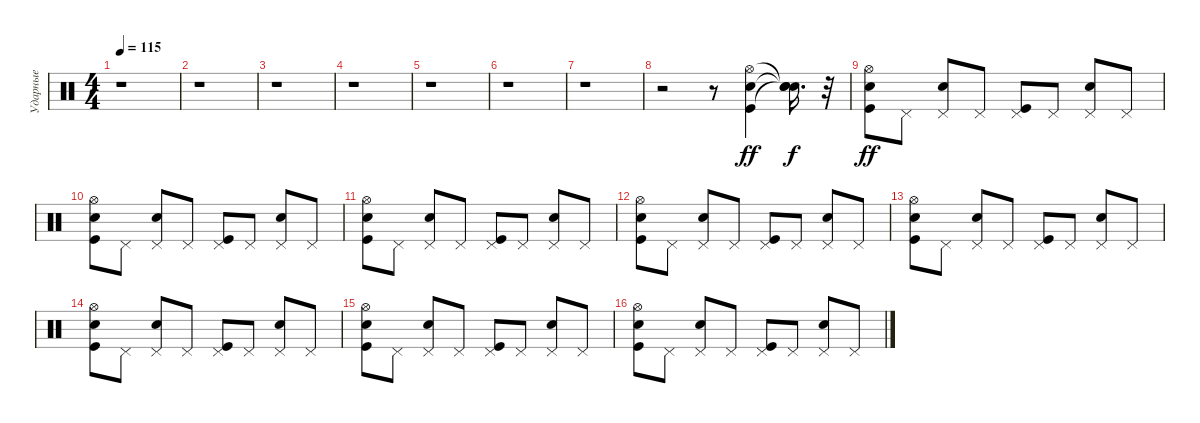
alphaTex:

\track ("Ударные" "Ударные") {instrument percussion}
\staff {score}
\articulation defaults
\ts (4 4)
\tempo 115
\clef neutral
\ks c
r.1{dy ff} |
r.1 |
r.1 |
r.1 |
r.1 |
r.1 |
r.1 |
r.2 r.8 ("Kick (hit)" "Electric Snare (hit)" "Hi-Hat (open)").4 ("Snare (hit)"{t} "Snare (hit)"{t} "Snare (hit)"{t}).16{d dy f} r.32 |
("Kick (hit)" "Electric Snare (hit)" "Hi-Hat (open)").8{dy ff} "Pedal Hi-Hat (hit)".8 ("Electric Snare (hit)" "Pedal Hi-Hat (hit)").8 "Pedal Hi-Hat (hit)".8 ("Kick (hit)" "Pedal Hi-Hat (hit)").8 "Pedal Hi-Hat (hit)".8 ("Electric Snare (hit)" "Pedal Hi-Hat (hit)").8 "Pedal Hi-Hat (hit)".8 |
("Kick (hit)" "Electric Snare (hit)" "Hi-Hat (open)").8 "Pedal Hi-Hat (hit)".8 ("Electric Snare (hit)" "Pedal Hi-Hat (hit)").8 "Pedal Hi-Hat (hit)".8 ("Kick (hit)" "Pedal Hi-Hat (hit)").8 "Pedal Hi-Hat (hit)".8 ("Electric Snare (hit)" "Pedal Hi-Hat (hit)").8 "Pedal Hi-Hat (hit)".8 |
("Kick (hit)" "Electric Snare (hit)" "Hi-Hat (open)").8 "Pedal Hi-Hat (hit)".8 ("Electric Snare (hit)" "Pedal Hi-Hat (hit)").8 "Pedal Hi-Hat (hit)".8 ("Kick (hit)" "Pedal Hi-Hat (hit)").8 "Pedal Hi-Hat (hit)".8 ("Electric Snare (hit)" "Pedal Hi-Hat (hit)").8 "Pedal Hi-Hat (hit)".8 |
("Kick (hit)" "Electric Snare (hit)" "Hi-Hat (open)").8 "Pedal Hi-Hat (hit)".8 ("Electric Snare (hit)" "Pedal Hi-Hat (hit)").8 "Pedal Hi-Hat (hit)".8 ("Kick (hit)" "Pedal Hi-Hat (hit)").8 "Pedal Hi-Hat (hit)".8 ("Electric Snare (hit)" "Pedal Hi-Hat (hit)").8 "Pedal Hi-Hat (hit)".8 |
("Kick (hit)" "Electric Snare (hit)" "Hi-Hat (open)").8 "Pedal Hi-Hat (hit)".8 ("Electric Snare (hit)" "Pedal Hi-Hat (hit)").8 "Pedal Hi-Hat (hit)".8 ("Kick (hit)" "Pedal Hi-Hat (hit)").8 "Pedal Hi-Hat (hit)".8 ("Electric Snare (hit)" "Pedal Hi-Hat (hit)").8 "Pedal Hi-Hat (hit)".8 |
("Kick (hit)" "Electric Snare (hit)" "Hi-Hat (open)").8 "Pedal Hi-Hat (hit)".8 ("Electric Snare (hit)" "Pedal Hi-Hat (hit)").8 "Pedal Hi-Hat (hit)".8 ("Kick (hit)" "Pedal Hi-Hat (hit)").8 "Pedal Hi-Hat (hit)".8 ("Electric Snare (hit)" "Pedal Hi-Hat (hit)").8 "Pedal Hi-Hat (hit)".8 |
("Kick (hit)" "Electric Snare (hit)" "Hi-Hat (open)").8 "Pedal Hi-Hat (hit)".8 ("Electric Snare (hit)" "Pedal Hi-Hat (hit)").8 "Pedal Hi-Hat (hit)".8 ("Kick (hit)" "Pedal Hi-Hat (hit)").8 "Pedal Hi-Hat (hit)".8 ("Electric Snare (hit)" "Pedal Hi-Hat (hit)").8 "Pedal Hi-Hat (hit)".8 |
("Kick (hit)" "Electric Snare (hit)" "Hi-Hat (open)").8 "Pedal Hi-Hat (hit)".8 ("Electric Snare (hit)" "Pedal Hi-Hat (hit)").8 "Pedal Hi-Hat (hit)".8 ("Kick (hit)" "Pedal Hi-Hat (hit)").8 "Pedal Hi-Hat (hit)".8 ("Electric Snare (hit)" "Pedal Hi-Hat (hit)").8 "Pedal Hi-Hat (hit)".8
